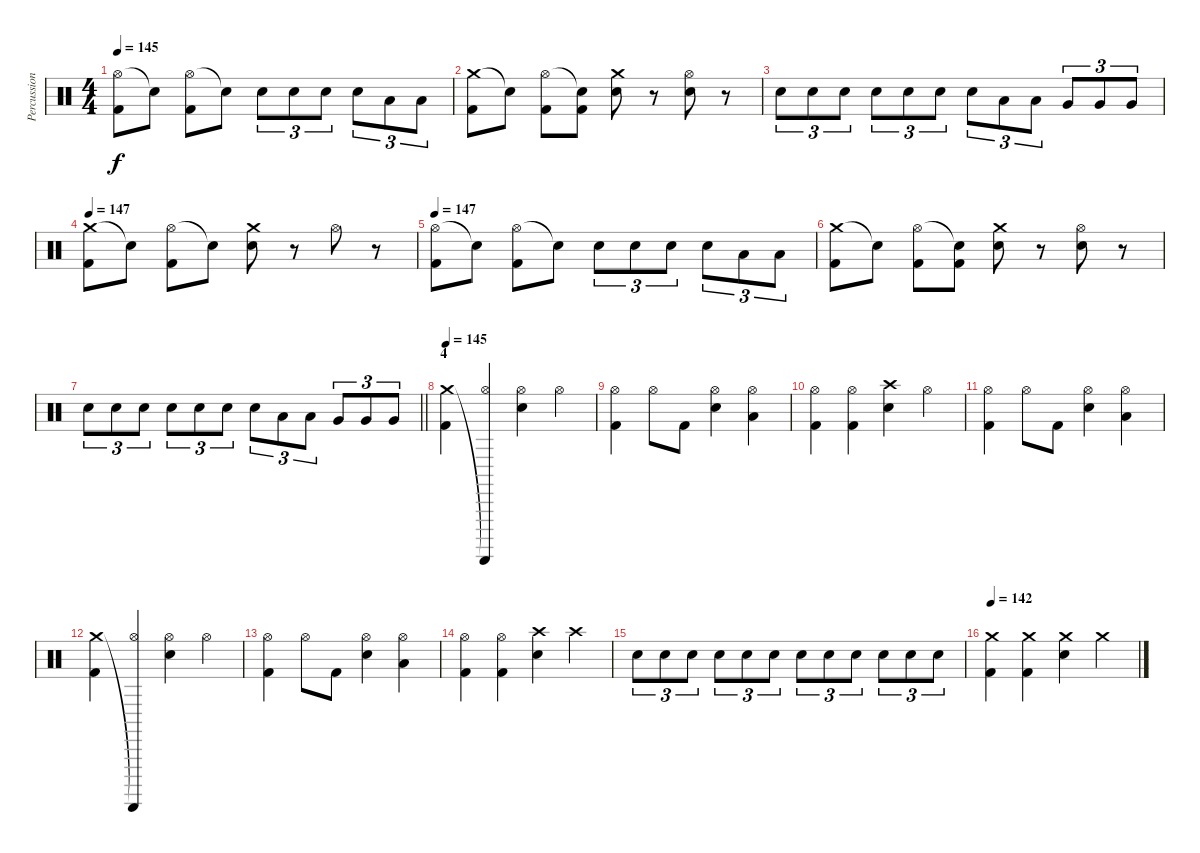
\track ("Percussion" "Percussion") {instrument percussion}
\staff {score}
\articulation defaults
\ts (4 4)
\tempo 145
\clef neutral
\ks c
("Hi-Hat (open)" "Kick (hit) 2").8{dy f} "Snare (hit)"{t}.8 ("Hi-Hat (open)" "Kick (hit) 2").8 "Snare (hit)"{t}.8 "Electric Snare (hit)".8{tu (3 2)} "Electric Snare (hit)".8{tu (3 2)} "Electric Snare (hit)".8{tu (3 2)} "Electric Snare (hit)".8{tu (3 2)} "Low Tom (hit)".8{tu (3 2)} "Low Tom (hit)".8{tu (3 2)} |
("Crash medium (hit)" "Kick (hit) 2").8 "Snare (hit)"{t}.8 ("Hi-Hat (open)" "Kick (hit) 2").8 ("Snare (hit)"{t} "Kick (hit) 2").8 ("Crash medium (hit)" "Electric Snare (hit)").8 r.8 ("Hi-Hat (open)" "Electric Snare (hit)").8 r.8 |
"Electric Snare (hit)".8{tu (3 2)} "Electric Snare (hit)".8{tu (3 2)} "Electric Snare (hit)".8{tu (3 2)} "Electric Snare (hit)".8{tu (3 2)} "Electric Snare (hit)".8{tu (3 2)} "Electric Snare (hit)".8{tu (3 2)} "Electric Snare (hit)".8{tu (3 2)} "Low Tom (hit)".8{tu (3 2)} "Low Tom (hit)".8{tu (3 2)} "Very Low Tom (hit)".8{tu (3 2)} "Very Low Tom (hit)".8{tu (3 2)} "Very Low Tom (hit)".8{tu (3 2)} |
\tempo 147
("Crash medium (hit)" "Kick (hit) 2").8 "Snare (hit)"{t}.8 ("Hi-Hat (open)" "Kick (hit) 2").8 "Snare (hit)"{t}.8 ("Crash medium (hit)" "Electric Snare (hit)").8 r.8 "Hi-Hat (open)".8 r.8 |
\tempo 147
("Hi-Hat (open)" "Kick (hit) 2").8 "Snare (hit)"{t}.8 ("Hi-Hat (open)" "Kick (hit) 2").8 "Snare (hit)"{t}.8 "Electric Snare (hit)".8{tu (3 2)} "Electric Snare (hit)".8{tu (3 2)} "Electric Snare (hit)".8{tu (3 2)} "Electric Snare (hit)".8{tu (3 2)} "Low Tom (hit)".8{tu (3 2)} "Low Tom (hit)".8{tu (3 2)} |
("Crash medium (hit)" "Kick (hit) 2").8 "Snare (hit)"{t}.8 ("Hi-Hat (open)" "Kick (hit) 2").8 ("Snare (hit)"{t} "Kick (hit) 2").8 ("Crash medium (hit)" "Electric Snare (hit)").8 r.8 ("Hi-Hat (open)" "Electric Snare (hit)").8 r.8 |
\barLineRight lightlight "Electric Snare (hit)".8{tu (3 2)} "Electric Snare (hit)".8{tu (3 2)} "Electric Snare (hit)".8{tu (3 2)} "Electric Snare (hit)".8{tu (3 2)} "Electric Snare (hit)".8{tu (3 2)} "Electric Snare (hit)".8{tu (3 2)} "Electric Snare (hit)".8{tu (3 2)} "Low Tom (hit)".8{tu (3 2)} "Low Tom (hit)".8{tu (3 2)} "Very Low Tom (hit)".8{tu (3 2)} "Very Low Tom (hit)".8{tu (3 2)} "Very Low Tom (hit)".8{tu (3 2)}
|
\section ("" "4")
\tempo 145
("Crash medium (hit)" "Kick (hit) 2").4 ("Guiro (scrap-return)"{t} "Hi-Hat (open)").4 ("Hi-Hat (open)" "Electric Snare (hit)").4 "Hi-Hat (open)".4 |
("Hi-Hat (open)" "Kick (hit) 2").4 "Hi-Hat (open)".8 "Kick (hit) 2".8 ("Hi-Hat (open)" "Electric Snare (hit)").4 ("Hi-Hat (open)" "Low Tom (hit)").4 |
("Hi-Hat (open)" "Kick (hit) 2").4 ("Hi-Hat (open)" "Kick (hit) 2").4 ("Crash high (hit)" "Electric Snare (hit)").4 "Hi-Hat (open)".4 |
("Hi-Hat (open)" "Kick (hit) 2").4 "Hi-Hat (open)".8 "Kick (hit) 2".8 ("Hi-Hat (open)" "Electric Snare (hit)").4 ("Hi-Hat (open)" "Low Tom (hit)").4 |
("Crash medium (hit)" "Kick (hit) 2").4 ("Guiro (scrap-return)"{t} "Hi-Hat (open)").4 ("Hi-Hat (open)" "Electric Snare (hit)").4 "Hi-Hat (open)".4 |
("Hi-Hat (open)" "Kick (hit) 2").4 "Hi-Hat (open)".8 "Kick (hit) 2".8 ("Hi-Hat (open)" "Electric Snare (hit)").4 ("Hi-Hat (open)" "Low Tom (hit)").4 |
("Hi-Hat (open)" "Kick (hit) 2").4 ("Hi-Hat (open)" "Kick (hit) 2").4 ("Crash high (hit)" "Electric Snare (hit)").4 "Crash high (hit)".4 |
"Electric Snare (hit)".8{tu (3 2)} "Electric Snare (hit)".8{tu (3 2)} "Electric Snare (hit)".8{tu (3 2)} "Electric Snare (hit)".8{tu (3 2)} "Electric Snare (hit)".8{tu (3 2)} "Electric Snare (hit)".8{tu (3 2)} "Electric Snare (hit)".8{tu (3 2)} "Electric Snare (hit)".8{tu (3 2)} "Electric Snare (hit)".8{tu (3 2)} "Electric Snare (hit)".8{tu (3 2)} "Electric Snare (hit)".8{tu (3 2)} "Electric Snare (hit)".8{tu (3 2)} |
\tempo 150
\tempo 142
("Crash medium (hit)" "Kick (hit) 2").4 ("Crash medium (hit)" "Kick (hit) 2").4 ("Crash medium (hit)" "Electric Snare (hit)").4 "Crash medium (hit)".4
